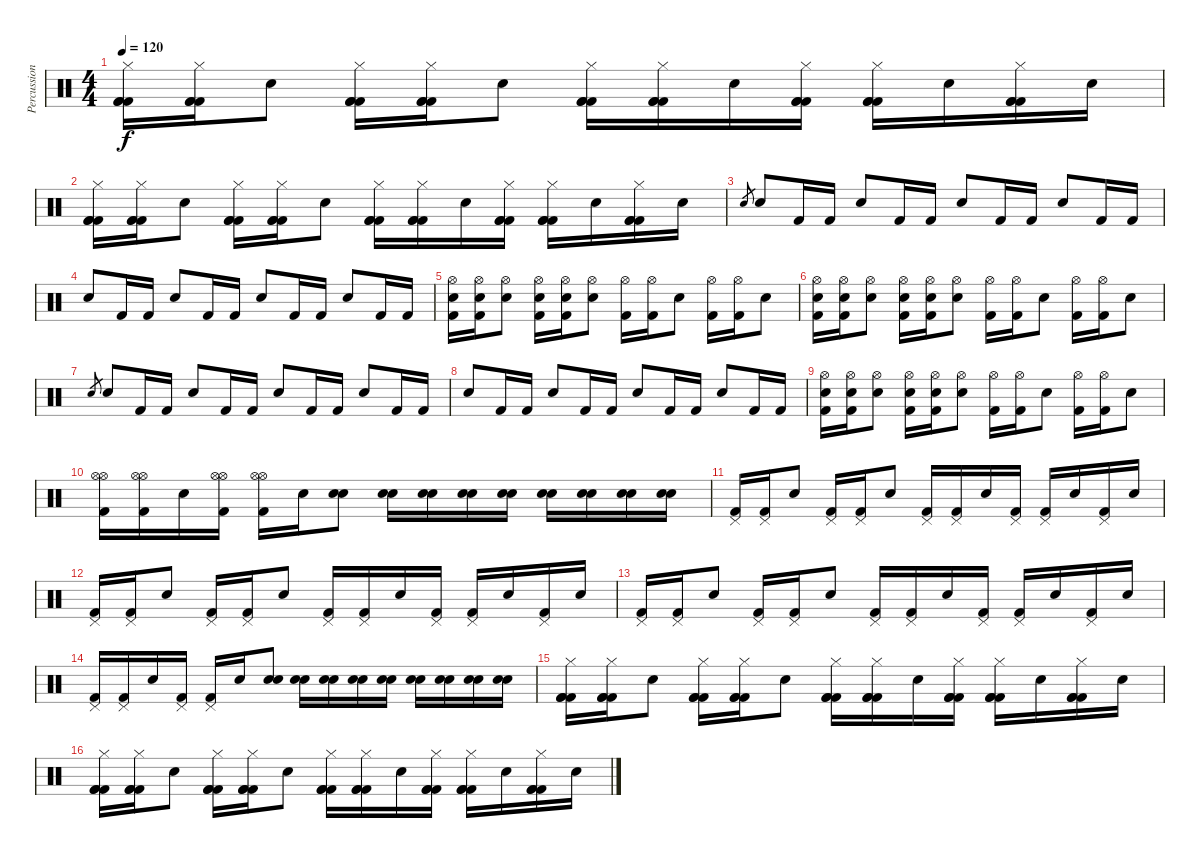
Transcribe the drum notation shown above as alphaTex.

\track ("Percussion" "Percussion") {instrument percussion}
\staff {score}
\articulation defaults
\ts (4 4)
\tempo 120
\clef neutral
\ks c
("Kick (hit) 2" "Kick (hit) 2" "Hi-Hat (closed)" "Kick (hit) 2").16{dy f} ("Kick (hit) 2" "Kick (hit) 2" "Hi-Hat (closed)" "Kick (hit) 2").16 "Snare (hit) 2".8 ("Kick (hit) 2" "Kick (hit) 2" "Hi-Hat (closed)" "Kick (hit) 2").16 ("Kick (hit) 2" "Kick (hit) 2" "Hi-Hat (closed)" "Kick (hit) 2").16 "Snare (hit) 2".8 ("Kick (hit) 2" "Kick (hit) 2" "Hi-Hat (closed)" "Kick (hit) 2").16 ("Kick (hit) 2" "Kick (hit) 2" "Hi-Hat (closed)" "Kick (hit) 2").16 "Snare (hit) 2".16 ("Kick (hit) 2" "Kick (hit) 2" "Hi-Hat (closed)" "Kick (hit) 2").16 ("Kick (hit) 2" "Kick (hit) 2" "Hi-Hat (closed)" "Kick (hit) 2").16 "Snare (hit) 2".16 ("Kick (hit) 2" "Kick (hit) 2" "Hi-Hat (closed)" "Kick (hit) 2").16 "Snare (hit) 2".16 |
("Kick (hit) 2" "Kick (hit) 2" "Hi-Hat (closed)" "Kick (hit) 2").16 ("Kick (hit) 2" "Kick (hit) 2" "Hi-Hat (closed)" "Kick (hit) 2").16 "Snare (hit) 2".8 ("Kick (hit) 2" "Kick (hit) 2" "Hi-Hat (closed)" "Kick (hit) 2").16 ("Kick (hit) 2" "Kick (hit) 2" "Hi-Hat (closed)" "Kick (hit) 2").16 "Snare (hit) 2".8 ("Kick (hit) 2" "Kick (hit) 2" "Hi-Hat (closed)" "Kick (hit) 2").16 ("Kick (hit) 2" "Kick (hit) 2" "Hi-Hat (closed)" "Kick (hit) 2").16 "Snare (hit) 2".16 ("Kick (hit) 2" "Kick (hit) 2" "Hi-Hat (closed)" "Kick (hit) 2").16 ("Kick (hit) 2" "Kick (hit) 2" "Hi-Hat (closed)" "Kick (hit) 2").16 "Snare (hit) 2".16 ("Kick (hit) 2" "Kick (hit) 2" "Hi-Hat (closed)" "Kick (hit) 2").16 "Snare (hit) 2".16 |
"Snare (hit) 2".8{gr} "Snare (hit) 2".8 "Kick (hit) 2".16 "Kick (hit) 2".16 "Snare (hit) 2".8 "Kick (hit) 2".16 "Kick (hit) 2".16 "Snare (hit) 2".8 "Kick (hit) 2".16 "Kick (hit) 2".16 "Snare (hit) 2".8 "Kick (hit) 2".16 "Kick (hit) 2".16 |
"Snare (hit) 2".8 "Kick (hit) 2".16 "Kick (hit) 2".16 "Snare (hit) 2".8 "Kick (hit) 2".16 "Kick (hit) 2".16 "Snare (hit) 2".8 "Kick (hit) 2".16 "Kick (hit) 2".16 "Snare (hit) 2".8 "Kick (hit) 2".16 "Kick (hit) 2".16 |
("Hi-Hat (open)" "Snare (hit) 2" "Kick (hit) 2").16 ("Hi-Hat (open)" "Snare (hit) 2" "Kick (hit) 2").16 ("Hi-Hat (open)" "Snare (hit) 2").8 ("Hi-Hat (open)" "Snare (hit) 2" "Kick (hit) 2").16 ("Hi-Hat (open)" "Snare (hit) 2" "Kick (hit) 2").16 ("Hi-Hat (open)" "Snare (hit) 2").8 ("Hi-Hat (open)" "Kick (hit) 2").16 ("Hi-Hat (open)" "Kick (hit) 2").16 "Snare (hit) 2".8 ("Hi-Hat (open)" "Kick (hit) 2").16 ("Hi-Hat (open)" "Kick (hit) 2").16 "Snare (hit) 2".8 |
("Hi-Hat (open)" "Snare (hit) 2" "Kick (hit) 2").16 ("Hi-Hat (open)" "Snare (hit) 2" "Kick (hit) 2").16 ("Hi-Hat (open)" "Snare (hit) 2").8 ("Hi-Hat (open)" "Snare (hit) 2" "Kick (hit) 2").16 ("Hi-Hat (open)" "Snare (hit) 2" "Kick (hit) 2").16 ("Hi-Hat (open)" "Snare (hit) 2").8 ("Hi-Hat (open)" "Kick (hit) 2").16 ("Hi-Hat (open)" "Kick (hit) 2").16 "Snare (hit) 2".8 ("Hi-Hat (open)" "Kick (hit) 2").16 ("Hi-Hat (open)" "Kick (hit) 2").16 "Snare (hit) 2".8 |
"Snare (hit) 2".8{gr} "Snare (hit) 2".8 "Kick (hit) 2".16 "Kick (hit) 2".16 "Snare (hit) 2".8 "Kick (hit) 2".16 "Kick (hit) 2".16 "Snare (hit) 2".8 "Kick (hit) 2".16 "Kick (hit) 2".16 "Snare (hit) 2".8 "Kick (hit) 2".16 "Kick (hit) 2".16 |
"Snare (hit) 2".8 "Kick (hit) 2".16 "Kick (hit) 2".16 "Snare (hit) 2".8 "Kick (hit) 2".16 "Kick (hit) 2".16 "Snare (hit) 2".8 "Kick (hit) 2".16 "Kick (hit) 2".16 "Snare (hit) 2".8 "Kick (hit) 2".16 "Kick (hit) 2".16 |
("Hi-Hat (open)" "Snare (hit) 2" "Kick (hit) 2").16 ("Hi-Hat (open)" "Snare (hit) 2" "Kick (hit) 2").16 ("Hi-Hat (open)" "Snare (hit) 2").8 ("Hi-Hat (open)" "Snare (hit) 2" "Kick (hit) 2").16 ("Hi-Hat (open)" "Snare (hit) 2" "Kick (hit) 2").16 ("Hi-Hat (open)" "Snare (hit) 2").8 ("Hi-Hat (open)" "Kick (hit) 2").16 ("Hi-Hat (open)" "Kick (hit) 2").16 "Snare (hit) 2".8 ("Hi-Hat (open)" "Kick (hit) 2").16 ("Hi-Hat (open)" "Kick (hit) 2").16 "Snare (hit) 2".8 |
("Hi-Hat (open)" "Hi-Hat (open)" "Kick (hit) 2").16 ("Hi-Hat (open)" "Hi-Hat (open)" "Kick (hit) 2").16 "Snare (hit) 2".16 ("Hi-Hat (open)" "Hi-Hat (open)" "Kick (hit) 2").16 ("Hi-Hat (open)" "Hi-Hat (open)" "Kick (hit) 2").16 "Snare (hit) 2".16 ("Snare (hit) 2" "Snare (hit) 2").8 ("Snare (hit) 2" "Snare (hit) 2").16 ("Snare (hit) 2" "Snare (hit) 2").16 ("Snare (hit) 2" "Snare (hit) 2").16 ("Snare (hit) 2" "Snare (hit) 2").16 ("Snare (hit) 2" "Snare (hit) 2").16 ("Snare (hit) 2" "Snare (hit) 2").16 ("Snare (hit) 2" "Snare (hit) 2").16 ("Snare (hit) 2" "Snare (hit) 2").16 |
("Pedal Hi-Hat (hit)" "Kick (hit) 2").16 ("Pedal Hi-Hat (hit)" "Kick (hit) 2").16 "Snare (hit) 2".8 ("Pedal Hi-Hat (hit)" "Kick (hit) 2").16 ("Pedal Hi-Hat (hit)" "Kick (hit) 2").16 "Snare (hit) 2".8 ("Pedal Hi-Hat (hit)" "Kick (hit) 2").16 ("Pedal Hi-Hat (hit)" "Kick (hit) 2").16 "Snare (hit) 2".16 ("Pedal Hi-Hat (hit)" "Kick (hit) 2").16 ("Pedal Hi-Hat (hit)" "Kick (hit) 2").16 "Snare (hit) 2".16 ("Pedal Hi-Hat (hit)" "Kick (hit) 2").16 "Snare (hit) 2".16 |
("Pedal Hi-Hat (hit)" "Kick (hit) 2").16 ("Pedal Hi-Hat (hit)" "Kick (hit) 2").16 "Snare (hit) 2".8 ("Pedal Hi-Hat (hit)" "Kick (hit) 2").16 ("Pedal Hi-Hat (hit)" "Kick (hit) 2").16 "Snare (hit) 2".8 ("Pedal Hi-Hat (hit)" "Kick (hit) 2").16 ("Pedal Hi-Hat (hit)" "Kick (hit) 2").16 "Snare (hit) 2".16 ("Pedal Hi-Hat (hit)" "Kick (hit) 2").16 ("Pedal Hi-Hat (hit)" "Kick (hit) 2").16 "Snare (hit) 2".16 ("Pedal Hi-Hat (hit)" "Kick (hit) 2").16 "Snare (hit) 2".16 |
("Pedal Hi-Hat (hit)" "Kick (hit) 2").16 ("Pedal Hi-Hat (hit)" "Kick (hit) 2").16 "Snare (hit) 2".8 ("Pedal Hi-Hat (hit)" "Kick (hit) 2").16 ("Pedal Hi-Hat (hit)" "Kick (hit) 2").16 "Snare (hit) 2".8 ("Pedal Hi-Hat (hit)" "Kick (hit) 2").16 ("Pedal Hi-Hat (hit)" "Kick (hit) 2").16 "Snare (hit) 2".16 ("Pedal Hi-Hat (hit)" "Kick (hit) 2").16 ("Pedal Hi-Hat (hit)" "Kick (hit) 2").16 "Snare (hit) 2".16 ("Pedal Hi-Hat (hit)" "Kick (hit) 2").16 "Snare (hit) 2".16 |
("Pedal Hi-Hat (hit)" "Kick (hit) 2").16 ("Pedal Hi-Hat (hit)" "Kick (hit) 2").16 "Snare (hit) 2".16 ("Pedal Hi-Hat (hit)" "Kick (hit) 2").16 ("Pedal Hi-Hat (hit)" "Kick (hit) 2").16 "Snare (hit) 2".16 ("Snare (hit) 2" "Snare (hit) 2").8 ("Snare (hit) 2" "Snare (hit) 2").16 ("Snare (hit) 2" "Snare (hit) 2").16 ("Snare (hit) 2" "Snare (hit) 2").16 ("Snare (hit) 2" "Snare (hit) 2").16 ("Snare (hit) 2" "Snare (hit) 2").16 ("Snare (hit) 2" "Snare (hit) 2").16 ("Snare (hit) 2" "Snare (hit) 2").16 ("Snare (hit) 2" "Snare (hit) 2").16 |
("Kick (hit) 2" "Kick (hit) 2" "Hi-Hat (closed)" "Kick (hit) 2").16 ("Kick (hit) 2" "Kick (hit) 2" "Hi-Hat (closed)" "Kick (hit) 2").16 "Snare (hit) 2".8 ("Kick (hit) 2" "Kick (hit) 2" "Hi-Hat (closed)" "Kick (hit) 2").16 ("Kick (hit) 2" "Kick (hit) 2" "Hi-Hat (closed)" "Kick (hit) 2").16 "Snare (hit) 2".8 ("Kick (hit) 2" "Kick (hit) 2" "Hi-Hat (closed)" "Kick (hit) 2").16 ("Kick (hit) 2" "Kick (hit) 2" "Hi-Hat (closed)" "Kick (hit) 2").16 "Snare (hit) 2".16 ("Kick (hit) 2" "Kick (hit) 2" "Hi-Hat (closed)" "Kick (hit) 2").16 ("Kick (hit) 2" "Kick (hit) 2" "Hi-Hat (closed)" "Kick (hit) 2").16 "Snare (hit) 2".16 ("Kick (hit) 2" "Kick (hit) 2" "Hi-Hat (closed)" "Kick (hit) 2").16 "Snare (hit) 2".16 |
("Kick (hit) 2" "Kick (hit) 2" "Hi-Hat (closed)" "Kick (hit) 2").16 ("Kick (hit) 2" "Kick (hit) 2" "Hi-Hat (closed)" "Kick (hit) 2").16 "Snare (hit) 2".8 ("Kick (hit) 2" "Kick (hit) 2" "Hi-Hat (closed)" "Kick (hit) 2").16 ("Kick (hit) 2" "Kick (hit) 2" "Hi-Hat (closed)" "Kick (hit) 2").16 "Snare (hit) 2".8 ("Kick (hit) 2" "Kick (hit) 2" "Hi-Hat (closed)" "Kick (hit) 2").16 ("Kick (hit) 2" "Kick (hit) 2" "Hi-Hat (closed)" "Kick (hit) 2").16 "Snare (hit) 2".16 ("Kick (hit) 2" "Kick (hit) 2" "Hi-Hat (closed)" "Kick (hit) 2").16 ("Kick (hit) 2" "Kick (hit) 2" "Hi-Hat (closed)" "Kick (hit) 2").16 "Snare (hit) 2".16 ("Kick (hit) 2" "Kick (hit) 2" "Hi-Hat (closed)" "Kick (hit) 2").16 "Snare (hit) 2".16
